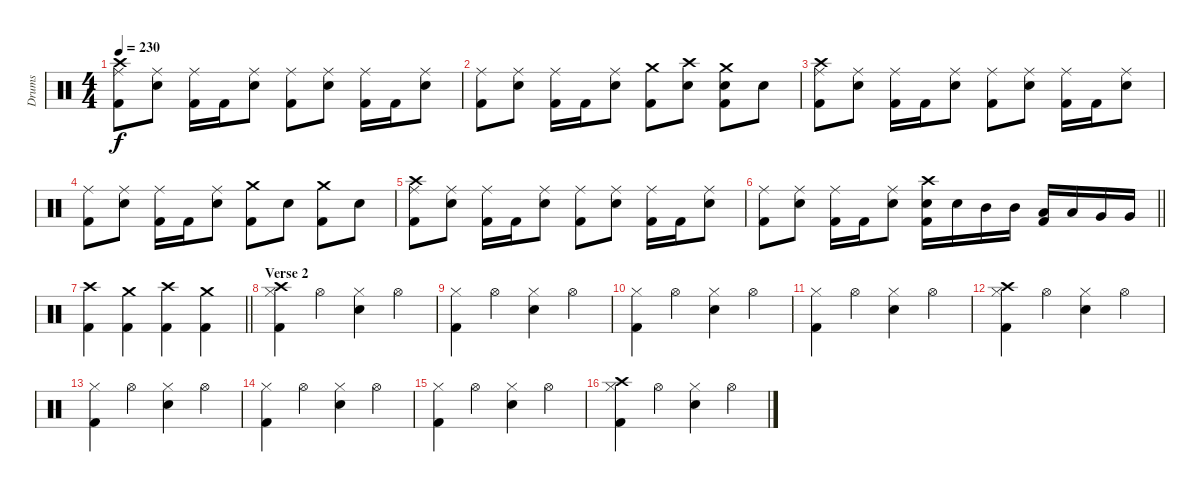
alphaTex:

\track ("Drums" "Drums") {instrument percussion}
\staff {score}
\articulation defaults
\ts (4 4)
\tempo 230
\clef neutral
\ks c
("Crash high (hit)" "Ride (middle)" "Kick (hit) 2").8{dy f} ("Ride (middle)" "Snare (hit) 2").8 ("Ride (middle)" "Kick (hit) 2").16 "Kick (hit) 2".16 ("Ride (middle)" "Snare (hit) 2").8 ("Ride (middle)" "Kick (hit) 2").8 ("Ride (middle)" "Snare (hit) 2").8 ("Ride (middle)" "Kick (hit) 2").16 "Kick (hit) 2".16 ("Ride (middle)" "Snare (hit) 2").8 |
("Ride (middle)" "Kick (hit) 2").8 ("Ride (middle)" "Snare (hit) 2").8 ("Ride (middle)" "Kick (hit) 2").16 "Kick (hit) 2".16 ("Ride (middle)" "Snare (hit) 2").8 ("Crash medium (hit)" "Kick (hit) 2").8 ("Crash high (hit)" "Snare (hit) 2").8 ("Crash medium (hit)" "Snare (hit) 2" "Kick (hit) 2").8 "Snare (hit) 2".8 |
("Crash high (hit)" "Ride (middle)" "Kick (hit) 2").8 ("Ride (middle)" "Snare (hit) 2").8 ("Ride (middle)" "Kick (hit) 2").16 "Kick (hit) 2".16 ("Ride (middle)" "Snare (hit) 2").8 ("Ride (middle)" "Kick (hit) 2").8 ("Ride (middle)" "Snare (hit) 2").8 ("Ride (middle)" "Kick (hit) 2").16 "Kick (hit) 2".16 ("Ride (middle)" "Snare (hit) 2").8 |
("Ride (middle)" "Kick (hit) 2").8 ("Ride (middle)" "Snare (hit) 2").8 ("Ride (middle)" "Kick (hit) 2").16 "Kick (hit) 2".16 ("Ride (middle)" "Snare (hit) 2").8 ("Crash medium (hit)" "Kick (hit) 2").8 "Snare (hit) 2".8 ("Crash medium (hit)" "Kick (hit) 2").8 "Snare (hit) 2".8 |
("Crash high (hit)" "Ride (middle)" "Kick (hit) 2").8 ("Ride (middle)" "Snare (hit) 2").8 ("Ride (middle)" "Kick (hit) 2").16 "Kick (hit) 2".16 ("Ride (middle)" "Snare (hit) 2").8 ("Ride (middle)" "Kick (hit) 2").8 ("Ride (middle)" "Snare (hit) 2").8 ("Ride (middle)" "Kick (hit) 2").16 "Kick (hit) 2".16 ("Ride (middle)" "Snare (hit) 2").8 |
\barLineRight lightlight
("Ride (middle)" "Kick (hit) 2").8 ("Ride (middle)" "Snare (hit) 2").8 ("Ride (middle)" "Kick (hit) 2").16 "Kick (hit) 2".16 ("Ride (middle)" "Snare (hit) 2").8 ("Crash high (hit)" "Snare (hit) 2" "Kick (hit) 2").16 "Snare (hit) 2".16 "Mid Tom (hit)".16 "Mid Tom (hit)".16 ("Low Tom (hit)" "Kick (hit) 2").16 "Low Tom (hit)".16 "Very Low Tom (hit)".16 "Very Low Tom (hit)".16 |
\barLineRight lightlight
("Crash high (hit)" "Kick (hit) 2").4 ("Crash medium (hit)" "Kick (hit) 2").4 ("Crash high (hit)" "Kick (hit) 2").4 ("Crash medium (hit)" "Kick (hit) 2").4 |
\section ("" "Verse 2")
("Crash high (hit)" "Hi-Hat (closed)" "Kick (hit) 2").4 "Hi-Hat (open)".4 ("Hi-Hat (closed)" "Snare (hit) 2").4 "Hi-Hat (open)".4 |
("Hi-Hat (closed)" "Kick (hit) 2").4 "Hi-Hat (open)".4 ("Hi-Hat (closed)" "Snare (hit) 2").4 "Hi-Hat (open)".4 |
("Hi-Hat (closed)" "Kick (hit) 2").4 "Hi-Hat (open)".4 ("Hi-Hat (closed)" "Snare (hit) 2").4 "Hi-Hat (open)".4 |
("Hi-Hat (closed)" "Kick (hit) 2").4 "Hi-Hat (open)".4 ("Hi-Hat (closed)" "Snare (hit) 2").4 "Hi-Hat (open)".4 |
("Crash high (hit)" "Hi-Hat (closed)" "Kick (hit) 2").4 "Hi-Hat (open)".4 ("Hi-Hat (closed)" "Snare (hit) 2").4 "Hi-Hat (open)".4 |
("Hi-Hat (closed)" "Kick (hit) 2").4 "Hi-Hat (open)".4 ("Hi-Hat (closed)" "Snare (hit) 2").4 "Hi-Hat (open)".4 |
("Hi-Hat (closed)" "Kick (hit) 2").4 "Hi-Hat (open)".4 ("Hi-Hat (closed)" "Snare (hit) 2").4 "Hi-Hat (open)".4 |
("Hi-Hat (closed)" "Kick (hit) 2").4 "Hi-Hat (open)".4 ("Hi-Hat (closed)" "Snare (hit) 2").4 "Hi-Hat (open)".4 |
("Crash high (hit)" "Hi-Hat (closed)" "Kick (hit) 2").4 "Hi-Hat (open)".4 ("Hi-Hat (closed)" "Snare (hit) 2").4 "Hi-Hat (open)".4
